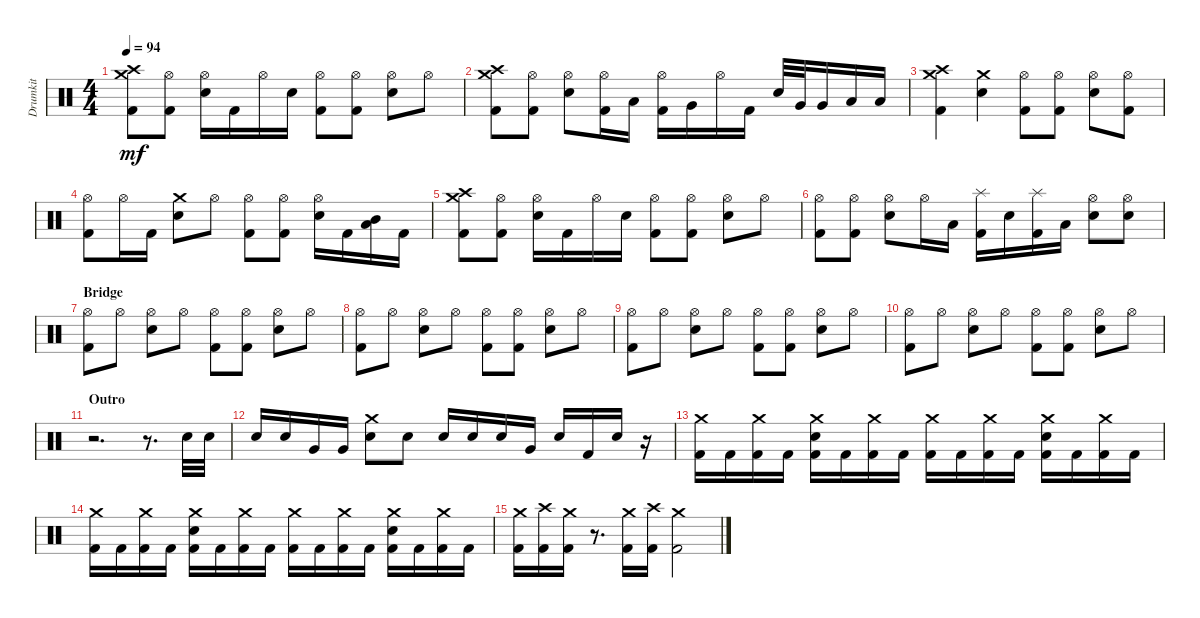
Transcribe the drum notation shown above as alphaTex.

\track ("Drumkit" "Drumkit") {instrument percussion}
\staff {score}
\articulation defaults
\ts (4 4)
\tempo 94
\clef neutral
\ks c
("Crash medium (hit)" "Crash high (hit)" "Kick (hit) 2").8{dy mf} ("Hi-Hat (open)" "Kick (hit) 2").8 ("Hi-Hat (open)" "Snare (hit) 2").16 "Kick (hit) 2".16 "Hi-Hat (open)".16 "Snare (hit) 2".16 ("Hi-Hat (open)" "Kick (hit) 2").8 ("Hi-Hat (open)" "Kick (hit) 2").8 ("Hi-Hat (open)" "Snare (hit) 2").8 "Hi-Hat (open)".8 |
("Crash medium (hit)" "Crash high (hit)" "Kick (hit) 2").8 ("Hi-Hat (open)" "Kick (hit) 2").8 ("Hi-Hat (open)" "Snare (hit) 2").8 ("Hi-Hat (open)" "Kick (hit) 2").16 "Low Tom (hit)".16 ("Hi-Hat (open)" "Kick (hit) 2").16 "Very Low Tom (hit)".16 "Hi-Hat (open)".16 "Kick (hit) 2".16 "Snare (hit) 2".32 "Very Low Tom (hit)".32 "Very Low Tom (hit)".16 "Low Floor Tom (hit)".16 "Low Floor Tom (hit)".16 |
("Crash medium (hit)" "Crash high (hit)" "Kick (hit) 2").4 ("Crash medium (hit)" "Snare (hit) 2").4 ("Hi-Hat (open)" "Kick (hit) 2").8 ("Hi-Hat (open)" "Kick (hit) 2").8 ("Hi-Hat (open)" "Snare (hit) 2").8 ("Hi-Hat (open)" "Kick (hit) 2").8 |
("Hi-Hat (open)" "Kick (hit) 2").8 "Hi-Hat (open)".16 "Kick (hit) 2".16 ("Crash medium (hit)" "Snare (hit) 2").8 "Hi-Hat (open)".8 ("Hi-Hat (open)" "Kick (hit) 2").8 ("Hi-Hat (open)" "Kick (hit) 2").8 ("Hi-Hat (open)" "Snare (hit) 2").16 "Kick (hit) 2".16 ("Low Tom (hit)" "Mid Tom (hit)").16 "Kick (hit) 2".16 |
("Crash medium (hit)" "Crash high (hit)" "Kick (hit) 2").8 ("Hi-Hat (open)" "Kick (hit) 2").8 ("Hi-Hat (open)" "Snare (hit) 2").16 "Kick (hit) 2".16 "Hi-Hat (open)".16 "Snare (hit) 2".16 ("Hi-Hat (open)" "Kick (hit) 2").8 ("Hi-Hat (open)" "Kick (hit) 2").8 ("Hi-Hat (open)" "Snare (hit) 2").8 "Hi-Hat (open)".8 |
("Hi-Hat (open)" "Kick (hit) 2").8 ("Hi-Hat (open)" "Kick (hit) 2").8 ("Hi-Hat (open)" "Snare (hit) 2").8 "Hi-Hat (open)".16 "Low Tom (hit)".16 ("Splash (hit)" "Kick (hit) 2").16 "Snare (hit) 2".16 ("Splash (hit)" "Kick (hit) 2").16 "Low Floor Tom (hit)".16 ("Hi-Hat (open)" "Snare (hit) 2").8 ("Hi-Hat (open)" "Snare (hit) 2").8 |
\section ("" "Bridge")
("Hi-Hat (open)" "Kick (hit) 2").8 "Hi-Hat (open)".8 ("Hi-Hat (open)" "Snare (hit) 2").8 "Hi-Hat (open)".8 ("Hi-Hat (open)" "Kick (hit) 2").8 ("Hi-Hat (open)" "Kick (hit) 2").8 ("Hi-Hat (open)" "Snare (hit) 2").8 "Hi-Hat (open)".8 |
("Hi-Hat (open)" "Kick (hit) 2").8 "Hi-Hat (open)".8 ("Hi-Hat (open)" "Snare (hit) 2").8 "Hi-Hat (open)".8 ("Hi-Hat (open)" "Kick (hit) 2").8 ("Hi-Hat (open)" "Kick (hit) 2").8 ("Hi-Hat (open)" "Snare (hit) 2").8 "Hi-Hat (open)".8 |
("Hi-Hat (open)" "Kick (hit) 2").8 "Hi-Hat (open)".8 ("Hi-Hat (open)" "Snare (hit) 2").8 "Hi-Hat (open)".8 ("Hi-Hat (open)" "Kick (hit) 2").8 ("Hi-Hat (open)" "Kick (hit) 2").8 ("Hi-Hat (open)" "Snare (hit) 2").8 "Hi-Hat (open)".8 |
("Hi-Hat (open)" "Kick (hit) 2").8 "Hi-Hat (open)".8 ("Hi-Hat (open)" "Snare (hit) 2").8 "Hi-Hat (open)".8 ("Hi-Hat (open)" "Kick (hit) 2").8 ("Hi-Hat (open)" "Kick (hit) 2").8 ("Hi-Hat (open)" "Snare (hit) 2").8 "Hi-Hat (open)".8 |
\section ("" "Outro")
r.2{d} r.8{d} "Snare (hit) 2".32 "Snare (hit) 2".32 |
"Snare (hit) 2".16 "Snare (hit) 2".16 "Very Low Tom (hit)".16 "Very Low Tom (hit)".16 ("Crash medium (hit)" "Snare (hit) 2").8 "Snare (hit) 2".8 "Snare (hit) 2".16 "Snare (hit) 2".16 "Snare (hit) 2".16 "Very Low Tom (hit)".16 "Snare (hit) 2".16 "Kick (hit) 2".16 "Snare (hit) 2".16 r.16 |
("Crash medium (hit)" "Kick (hit) 2").16 "Kick (hit) 2".16 ("Crash medium (hit)" "Kick (hit) 2").16 "Kick (hit) 2".16 ("Crash medium (hit)" "Snare (hit) 2" "Kick (hit) 2").16 "Kick (hit) 2".16 ("Crash medium (hit)" "Kick (hit) 2").16 "Kick (hit) 2".16 ("Crash medium (hit)" "Kick (hit) 2").16 "Kick (hit) 2".16 ("Crash medium (hit)" "Kick (hit) 2").16 "Kick (hit) 2".16 ("Crash medium (hit)" "Snare (hit) 2" "Kick (hit) 2").16 "Kick (hit) 2".16 ("Crash medium (hit)" "Kick (hit) 2").16 "Kick (hit) 2".16 |
("Crash medium (hit)" "Kick (hit) 2").16 "Kick (hit) 2".16 ("Crash medium (hit)" "Kick (hit) 2").16 "Kick (hit) 2".16 ("Crash medium (hit)" "Snare (hit) 2" "Kick (hit) 2").16 "Kick (hit) 2".16 ("Crash medium (hit)" "Kick (hit) 2").16 "Kick (hit) 2".16 ("Crash medium (hit)" "Kick (hit) 2").16 "Kick (hit) 2".16 ("Crash medium (hit)" "Kick (hit) 2").16 "Kick (hit) 2".16 ("Crash medium (hit)" "Snare (hit) 2" "Kick (hit) 2").16 "Kick (hit) 2".16 ("Crash medium (hit)" "Kick (hit) 2").16 "Kick (hit) 2".16 |
("Crash medium (hit)" "Kick (hit) 2").16 ("Crash high (hit)" "Kick (hit) 2").16 ("Crash medium (hit)" "Kick (hit) 2").16 r.8{d} ("Crash medium (hit)" "Kick (hit) 2").16 ("Crash high (hit)" "Kick (hit) 2").16 ("Crash medium (hit)" "Kick (hit) 2").2
